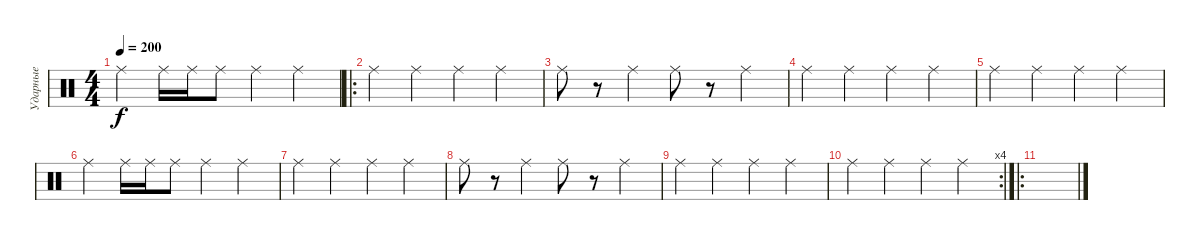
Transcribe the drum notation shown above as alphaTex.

\track ("Ударные" "Ударные") {instrument percussion}
\staff {score}
\articulation defaults
\ts (4 4)
\tempo 200
\clef neutral
\ks c "Ride (middle)".4{dy f} "Ride (middle)".16 "Ride (middle)".16 "Ride (middle)".8 "Ride (middle)".4 "Ride (middle)".4
|
\ro "Ride (middle)".4 "Ride (middle)".4 "Ride (middle)".4 "Ride (middle)".4
|
"Ride (middle)".8 r.8 "Ride (middle)".4 "Ride (middle)".8 r.8 "Ride (middle)".4 |
"Ride (middle)".4 "Ride (middle)".4 "Ride (middle)".4 "Ride (middle)".4 |
"Ride (middle)".4 "Ride (middle)".4 "Ride (middle)".4 "Ride (middle)".4 |
"Ride (middle)".4 "Ride (middle)".16 "Ride (middle)".16 "Ride (middle)".8 "Ride (middle)".4 "Ride (middle)".4 |
"Ride (middle)".4 "Ride (middle)".4 "Ride (middle)".4 "Ride (middle)".4 |
"Ride (middle)".8 r.8 "Ride (middle)".4 "Ride (middle)".8 r.8 "Ride (middle)".4 |
"Ride (middle)".4 "Ride (middle)".4 "Ride (middle)".4 "Ride (middle)".4 |
\rc 4 "Ride (middle)".4 "Ride (middle)".4 "Ride (middle)".4 "Ride (middle)".4
|
\ro
